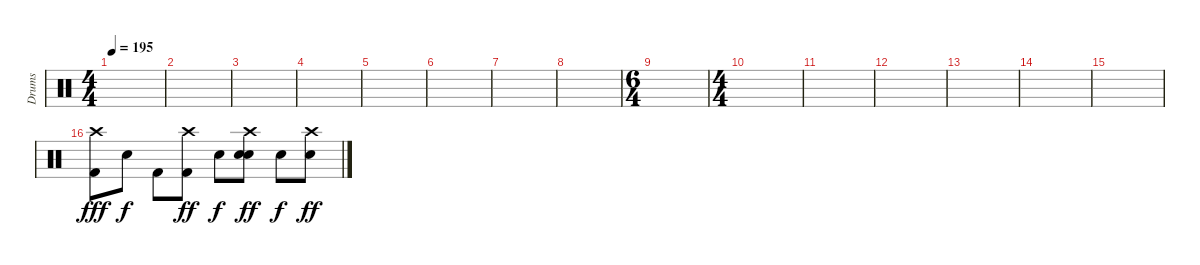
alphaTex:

\track ("Drums" "Drums") {instrument percussion}
\staff {score}
\articulation defaults
\ts (4 4)
\tempo 195
\clef neutral
\ks c
|
|
|
|
|
|
|
|
\ts (6 4)
|
\ts (4 4)
|
|
|
|
|
|
("Crash high (hit)" "Kick (hit) 2").8{dy fff} "Snare (hit)".8{dy f} "Kick (hit) 2".8 ("Crash high (hit)" "Kick (hit) 2").8{dy ff} "Snare (hit)".8{dy f} ("Crash high (hit)" "Snare (hit) 2" "Snare (hit)").8{dy ff} "Snare (hit)".8{dy f} ("Crash high (hit)" "Snare (hit)").8{dy ff}
